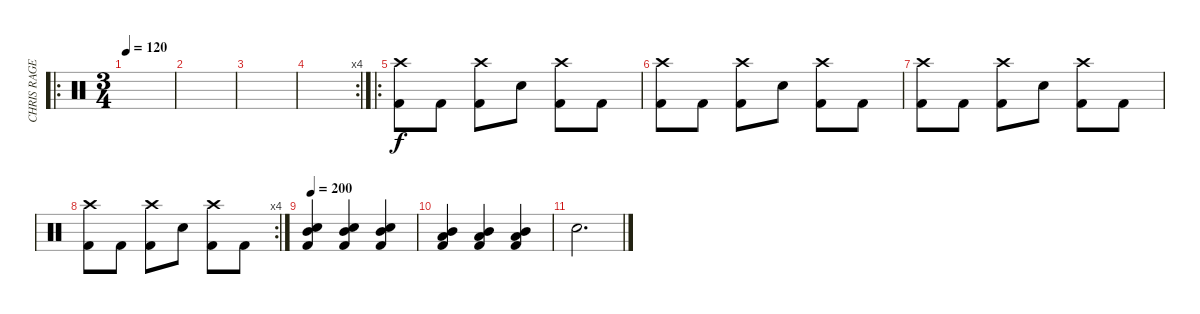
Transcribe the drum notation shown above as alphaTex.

\track ("CHRIS RAGE" "CHRIS RAGE") {instrument percussion}
\staff {score}
\articulation defaults
\ro
\ts (3 4)
\tempo 120
\clef neutral
\ks c
|
|
|
\rc 4
|
\ro
("Crash high (hit)" "Kick (hit) 2").8 "Kick (hit) 2".8 ("Crash high (hit)" "Kick (hit) 2").8 "Electric Snare (hit)".8 ("Crash high (hit)" "Kick (hit) 2").8 "Kick (hit) 2".8 |
("Crash high (hit)" "Kick (hit) 2").8 "Kick (hit) 2".8 ("Crash high (hit)" "Kick (hit) 2").8 "Electric Snare (hit)".8 ("Crash high (hit)" "Kick (hit) 2").8 "Kick (hit) 2".8 |
("Crash high (hit)" "Kick (hit) 2").8 "Kick (hit) 2".8 ("Crash high (hit)" "Kick (hit) 2").8 "Electric Snare (hit)".8 ("Crash high (hit)" "Kick (hit) 2").8 "Kick (hit) 2".8 |
\rc 4
("Crash high (hit)" "Kick (hit) 2").8 "Kick (hit) 2".8 ("Crash high (hit)" "Kick (hit) 2").8 "Electric Snare (hit)".8 ("Crash high (hit)" "Kick (hit) 2").8 "Kick (hit) 2".8 |
\tempo 200
("Mid Tom (hit)" "Electric Snare (hit)" "Kick (hit) 2").4 ("Mid Tom (hit)" "Electric Snare (hit)" "Kick (hit) 2").4 ("Mid Tom (hit)" "Electric Snare (hit)" "Kick (hit) 2").4 |
("Mid Tom (hit)" "Low Tom (hit)" "Kick (hit) 2").4 ("Mid Tom (hit)" "Low Tom (hit)" "Kick (hit) 2").4 ("Mid Tom (hit)" "Low Tom (hit)" "Kick (hit) 2").4 |
"Electric Snare (hit)".2{d}
